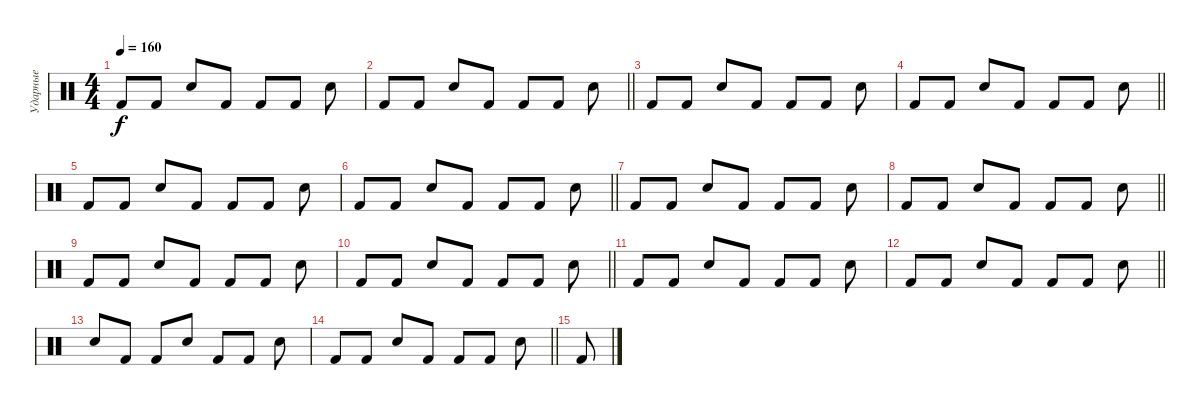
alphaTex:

\track ("Ударные" "Ударные") {instrument percussion}
\staff {score}
\articulation defaults
\ts (4 4)
\tempo 160
\clef neutral
\ks c "Kick (hit) 2".8{dy f} "Kick (hit) 2".8 "Snare (hit) 2".8 "Kick (hit) 2".8 "Kick (hit) 2".8 "Kick (hit) 2".8 "Snare (hit) 2".8
|
\barLineRight lightlight "Kick (hit) 2".8 "Kick (hit) 2".8 "Snare (hit) 2".8 "Kick (hit) 2".8 "Kick (hit) 2".8 "Kick (hit) 2".8 "Snare (hit) 2".8
|
"Kick (hit) 2".8 "Kick (hit) 2".8 "Snare (hit) 2".8 "Kick (hit) 2".8 "Kick (hit) 2".8 "Kick (hit) 2".8 "Snare (hit) 2".8 |
\barLineRight lightlight "Kick (hit) 2".8 "Kick (hit) 2".8 "Snare (hit) 2".8 "Kick (hit) 2".8 "Kick (hit) 2".8 "Kick (hit) 2".8 "Snare (hit) 2".8
|
"Kick (hit) 2".8 "Kick (hit) 2".8 "Snare (hit) 2".8 "Kick (hit) 2".8 "Kick (hit) 2".8 "Kick (hit) 2".8 "Snare (hit) 2".8 |
\barLineRight lightlight "Kick (hit) 2".8 "Kick (hit) 2".8 "Snare (hit) 2".8 "Kick (hit) 2".8 "Kick (hit) 2".8 "Kick (hit) 2".8 "Snare (hit) 2".8
|
"Kick (hit) 2".8 "Kick (hit) 2".8 "Snare (hit) 2".8 "Kick (hit) 2".8 "Kick (hit) 2".8 "Kick (hit) 2".8 "Snare (hit) 2".8 |
\barLineRight lightlight "Kick (hit) 2".8 "Kick (hit) 2".8 "Snare (hit) 2".8 "Kick (hit) 2".8 "Kick (hit) 2".8 "Kick (hit) 2".8 "Snare (hit) 2".8
|
"Kick (hit) 2".8 "Kick (hit) 2".8 "Snare (hit) 2".8 "Kick (hit) 2".8 "Kick (hit) 2".8 "Kick (hit) 2".8 "Snare (hit) 2".8 |
\barLineRight lightlight "Kick (hit) 2".8 "Kick (hit) 2".8 "Snare (hit) 2".8 "Kick (hit) 2".8 "Kick (hit) 2".8 "Kick (hit) 2".8 "Snare (hit) 2".8
|
"Kick (hit) 2".8 "Kick (hit) 2".8 "Snare (hit) 2".8 "Kick (hit) 2".8 "Kick (hit) 2".8 "Kick (hit) 2".8 "Snare (hit) 2".8 |
\barLineRight lightlight "Kick (hit) 2".8 "Kick (hit) 2".8 "Snare (hit) 2".8 "Kick (hit) 2".8 "Kick (hit) 2".8 "Kick (hit) 2".8 "Snare (hit) 2".8
|
"Snare (hit) 2".8 "Kick (hit) 2".8 "Kick (hit) 2".8 "Snare (hit) 2".8 "Kick (hit) 2".8 "Kick (hit) 2".8 "Snare (hit) 2".8 |
\barLineRight lightlight "Kick (hit) 2".8 "Kick (hit) 2".8 "Snare (hit) 2".8 "Kick (hit) 2".8 "Kick (hit) 2".8 "Kick (hit) 2".8 "Snare (hit) 2".8
|
"Kick (hit) 2".8
